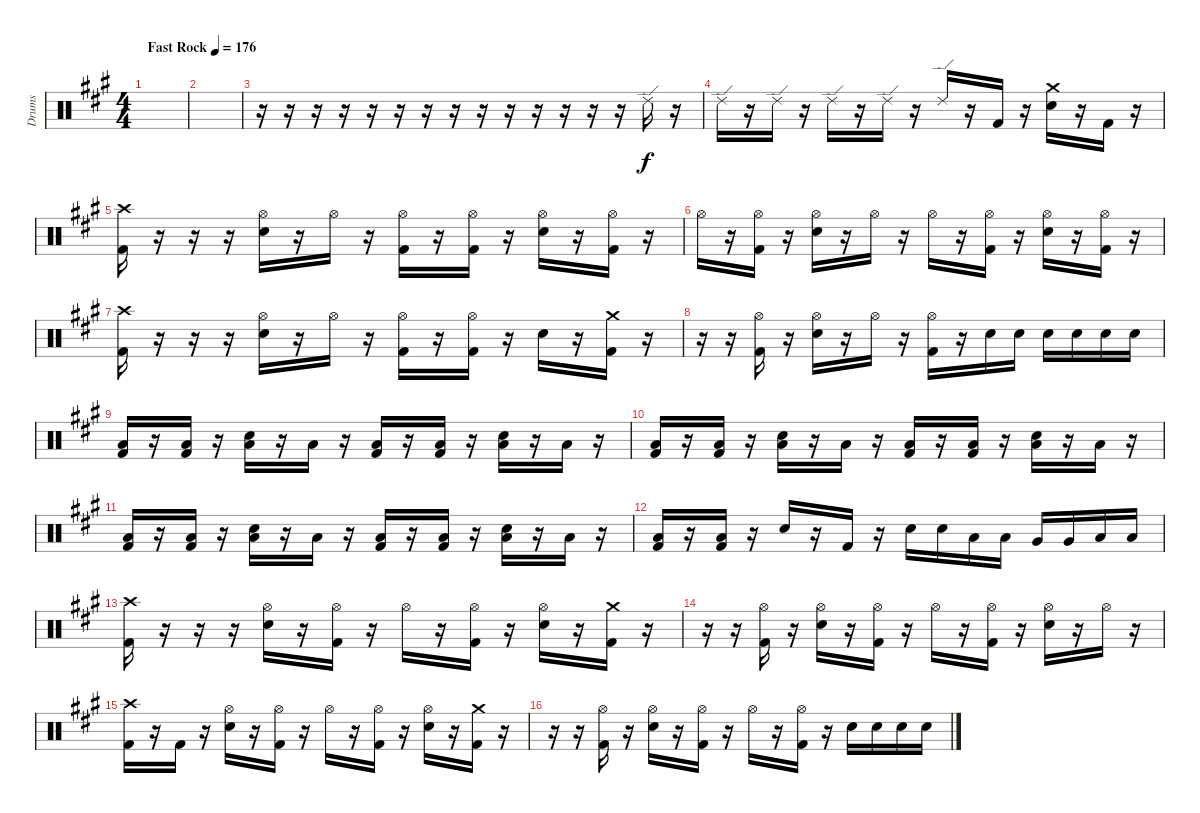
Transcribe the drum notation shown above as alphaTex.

\track ("Drums" "Drums") {instrument percussion}
\staff {score}
\articulation defaults
\ts (4 4)
\tempo (176 "Fast Rock")
\clef neutral
\ks a
|
|
r.16 r.16 r.16 r.16 r.16 r.16 r.16 r.16 r.16 r.16 r.16 r.16 r.16 r.16 "Ride (edge) 2".16 r.16 |
"Ride (edge) 2".16 r.16 "Ride (edge) 2".16 r.16 "Ride (edge) 2".16 r.16 "Ride (edge) 2".16 r.16 "Ride (edge) 2".16 r.16 "Kick (hit) 2".16 r.16 ("Crash medium (hit)" "Electric Snare (hit)").16 r.16 "Kick (hit) 2".16 r.16 |
("Crash high (hit)" "Kick (hit) 2").16 r.16 r.16 r.16 ("Hi-Hat (open)" "Electric Snare (hit)").16 r.16 "Hi-Hat (open)".16 r.16 ("Hi-Hat (open)" "Kick (hit) 2").16 r.16 ("Hi-Hat (open)" "Kick (hit) 2").16 r.16 ("Hi-Hat (open)" "Electric Snare (hit)").16 r.16 ("Hi-Hat (open)" "Kick (hit) 2").16 r.16 |
"Hi-Hat (open)".16 r.16 ("Hi-Hat (open)" "Kick (hit) 2").16 r.16 ("Hi-Hat (open)" "Electric Snare (hit)").16 r.16 "Hi-Hat (open)".16 r.16 "Hi-Hat (open)".16 r.16 ("Hi-Hat (open)" "Kick (hit) 2").16 r.16 ("Hi-Hat (open)" "Electric Snare (hit)").16 r.16 ("Hi-Hat (open)" "Kick (hit) 2").16 r.16 |
("Crash high (hit)" "Kick (hit) 2").16 r.16 r.16 r.16 ("Hi-Hat (open)" "Electric Snare (hit)").16 r.16 "Hi-Hat (open)".16 r.16 ("Hi-Hat (open)" "Kick (hit) 2").16 r.16 ("Hi-Hat (open)" "Kick (hit) 2").16 r.16 "Electric Snare (hit)".16 r.16 ("Crash medium (hit)" "Kick (hit) 2").16 r.16 |
r.16 r.16 ("Hi-Hat (open)" "Kick (hit) 2").16 r.16 ("Hi-Hat (open)" "Electric Snare (hit)").16 r.16 "Hi-Hat (open)".16 r.16 ("Hi-Hat (open)" "Kick (hit) 2").16 r.16 "Electric Snare (hit)".16 "Electric Snare (hit)".16 "Electric Snare (hit)".16 "Electric Snare (hit)".16 "Electric Snare (hit)".16 "Electric Snare (hit)".16 |
("Low Floor Tom (hit)" "Kick (hit) 2").16 r.16 ("Low Floor Tom (hit)" "Kick (hit) 2").16 r.16 ("Low Floor Tom (hit)" "Electric Snare (hit)").16 r.16 "Low Floor Tom (hit)".16 r.16 ("Low Floor Tom (hit)" "Kick (hit) 2").16 r.16 ("Low Floor Tom (hit)" "Kick (hit) 2").16 r.16 ("Low Floor Tom (hit)" "Electric Snare (hit)").16 r.16 "Low Floor Tom (hit)".16 r.16 |
("Low Floor Tom (hit)" "Kick (hit) 2").16 r.16 ("Low Floor Tom (hit)" "Kick (hit) 2").16 r.16 ("Low Floor Tom (hit)" "Electric Snare (hit)").16 r.16 "Low Floor Tom (hit)".16 r.16 ("Low Floor Tom (hit)" "Kick (hit) 2").16 r.16 ("Low Floor Tom (hit)" "Kick (hit) 2").16 r.16 ("Low Floor Tom (hit)" "Electric Snare (hit)").16 r.16 "Low Floor Tom (hit)".16 r.16 |
("Low Floor Tom (hit)" "Kick (hit) 2").16 r.16 ("Low Floor Tom (hit)" "Kick (hit) 2").16 r.16 ("Low Floor Tom (hit)" "Electric Snare (hit)").16 r.16 "Low Floor Tom (hit)".16 r.16 ("Low Floor Tom (hit)" "Kick (hit) 2").16 r.16 ("Low Floor Tom (hit)" "Kick (hit) 2").16 r.16 ("Low Floor Tom (hit)" "Electric Snare (hit)").16 r.16 "Low Floor Tom (hit)".16 r.16 |
("Low Floor Tom (hit)" "Kick (hit) 2").16 r.16 ("Low Floor Tom (hit)" "Kick (hit) 2").16 r.16 "Electric Snare (hit)".16 r.16 "Kick (hit) 2".16 r.16 "Electric Snare (hit)".16 "Electric Snare (hit)".16 "Low Tom (hit)".16 "Low Tom (hit)".16 "Very Low Tom (hit)".16 "Very Low Tom (hit)".16 "Low Floor Tom (hit)".16 "Low Floor Tom (hit)".16 |
("Crash high (hit)" "Kick (hit) 2").16 r.16 r.16 r.16 ("Hi-Hat (open)" "Electric Snare (hit)").16 r.16 ("Hi-Hat (open)" "Kick (hit) 2").16 r.16 "Hi-Hat (open)".16 r.16 ("Hi-Hat (open)" "Kick (hit) 2").16 r.16 ("Hi-Hat (open)" "Electric Snare (hit)").16 r.16 ("Crash medium (hit)" "Kick (hit) 2").16 r.16 |
r.16 r.16 ("Hi-Hat (open)" "Kick (hit) 2").16 r.16 ("Hi-Hat (open)" "Electric Snare (hit)").16 r.16 ("Hi-Hat (open)" "Kick (hit) 2").16 r.16 "Hi-Hat (open)".16 r.16 ("Hi-Hat (open)" "Kick (hit) 2").16 r.16 ("Hi-Hat (open)" "Electric Snare (hit)").16 r.16 "Hi-Hat (open)".16 r.16 |
("Crash high (hit)" "Kick (hit) 2").16 r.16 "Kick (hit) 2".16 r.16 ("Hi-Hat (open)" "Electric Snare (hit)").16 r.16 ("Hi-Hat (open)" "Kick (hit) 2").16 r.16 "Hi-Hat (open)".16 r.16 ("Hi-Hat (open)" "Kick (hit) 2").16 r.16 ("Hi-Hat (open)" "Electric Snare (hit)").16 r.16 ("Crash medium (hit)" "Kick (hit) 2").16 r.16 |
r.16 r.16 ("Hi-Hat (open)" "Kick (hit) 2").16 r.16 ("Hi-Hat (open)" "Electric Snare (hit)").16 r.16 ("Hi-Hat (open)" "Kick (hit) 2").16 r.16 "Hi-Hat (open)".16 r.16 ("Hi-Hat (open)" "Kick (hit) 2").16 r.16 "Electric Snare (hit)".16 "Electric Snare (hit)".16 "Electric Snare (hit)".16 "Electric Snare (hit)".16
